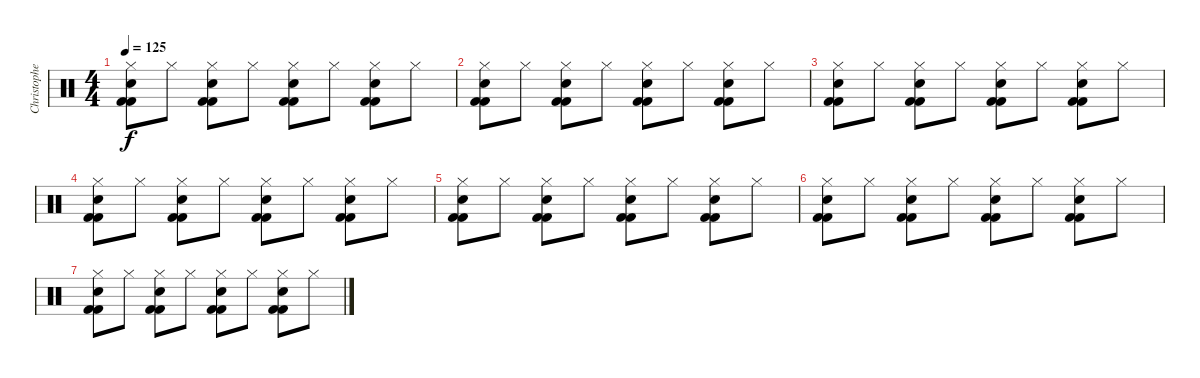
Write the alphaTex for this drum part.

\track ("Christopher S. (Drums)" "Christophe") {instrument percussion}
\staff {score}
\articulation defaults
\ts (4 4)
\tempo 125
\clef neutral
\ks c
("Hi-Hat (closed)" "Kick (hit) 2" "Kick (hit) 2" "Electric Snare (hit)").8{dy f} "Hi-Hat (closed)".8 ("Hi-Hat (closed)" "Kick (hit) 2" "Kick (hit) 2" "Electric Snare (hit)").8 "Hi-Hat (closed)".8 ("Hi-Hat (closed)" "Kick (hit) 2" "Kick (hit) 2" "Electric Snare (hit)").8 "Hi-Hat (closed)".8 ("Hi-Hat (closed)" "Kick (hit) 2" "Kick (hit) 2" "Electric Snare (hit)").8 "Hi-Hat (closed)".8 |
("Hi-Hat (closed)" "Kick (hit) 2" "Kick (hit) 2" "Electric Snare (hit)").8 "Hi-Hat (closed)".8 ("Hi-Hat (closed)" "Kick (hit) 2" "Kick (hit) 2" "Electric Snare (hit)").8 "Hi-Hat (closed)".8 ("Hi-Hat (closed)" "Kick (hit) 2" "Kick (hit) 2" "Electric Snare (hit)").8 "Hi-Hat (closed)".8 ("Hi-Hat (closed)" "Kick (hit) 2" "Kick (hit) 2" "Electric Snare (hit)").8 "Hi-Hat (closed)".8 |
("Hi-Hat (closed)" "Kick (hit) 2" "Kick (hit) 2" "Electric Snare (hit)").8 "Hi-Hat (closed)".8 ("Hi-Hat (closed)" "Kick (hit) 2" "Kick (hit) 2" "Electric Snare (hit)").8 "Hi-Hat (closed)".8 ("Hi-Hat (closed)" "Kick (hit) 2" "Kick (hit) 2" "Electric Snare (hit)").8 "Hi-Hat (closed)".8 ("Hi-Hat (closed)" "Kick (hit) 2" "Kick (hit) 2" "Electric Snare (hit)").8 "Hi-Hat (closed)".8 |
("Hi-Hat (closed)" "Kick (hit) 2" "Kick (hit) 2" "Electric Snare (hit)").8 "Hi-Hat (closed)".8 ("Hi-Hat (closed)" "Kick (hit) 2" "Kick (hit) 2" "Electric Snare (hit)").8 "Hi-Hat (closed)".8 ("Hi-Hat (closed)" "Kick (hit) 2" "Kick (hit) 2" "Electric Snare (hit)").8 "Hi-Hat (closed)".8 ("Hi-Hat (closed)" "Kick (hit) 2" "Kick (hit) 2" "Electric Snare (hit)").8 "Hi-Hat (closed)".8 |
("Hi-Hat (closed)" "Kick (hit) 2" "Kick (hit) 2" "Electric Snare (hit)").8 "Hi-Hat (closed)".8 ("Hi-Hat (closed)" "Kick (hit) 2" "Kick (hit) 2" "Electric Snare (hit)").8 "Hi-Hat (closed)".8 ("Hi-Hat (closed)" "Kick (hit) 2" "Kick (hit) 2" "Electric Snare (hit)").8 "Hi-Hat (closed)".8 ("Hi-Hat (closed)" "Kick (hit) 2" "Kick (hit) 2" "Electric Snare (hit)").8 "Hi-Hat (closed)".8 |
("Hi-Hat (closed)" "Kick (hit) 2" "Kick (hit) 2" "Electric Snare (hit)").8 "Hi-Hat (closed)".8 ("Hi-Hat (closed)" "Kick (hit) 2" "Kick (hit) 2" "Electric Snare (hit)").8 "Hi-Hat (closed)".8 ("Hi-Hat (closed)" "Kick (hit) 2" "Kick (hit) 2" "Electric Snare (hit)").8 "Hi-Hat (closed)".8 ("Hi-Hat (closed)" "Kick (hit) 2" "Kick (hit) 2" "Electric Snare (hit)").8 "Hi-Hat (closed)".8 |
("Hi-Hat (closed)" "Kick (hit) 2" "Kick (hit) 2" "Electric Snare (hit)").8 "Hi-Hat (closed)".8 ("Hi-Hat (closed)" "Kick (hit) 2" "Kick (hit) 2" "Electric Snare (hit)").8 "Hi-Hat (closed)".8 ("Hi-Hat (closed)" "Kick (hit) 2" "Kick (hit) 2" "Electric Snare (hit)").8 "Hi-Hat (closed)".8 ("Hi-Hat (closed)" "Kick (hit) 2" "Kick (hit) 2" "Electric Snare (hit)").8 "Hi-Hat (closed)".8
